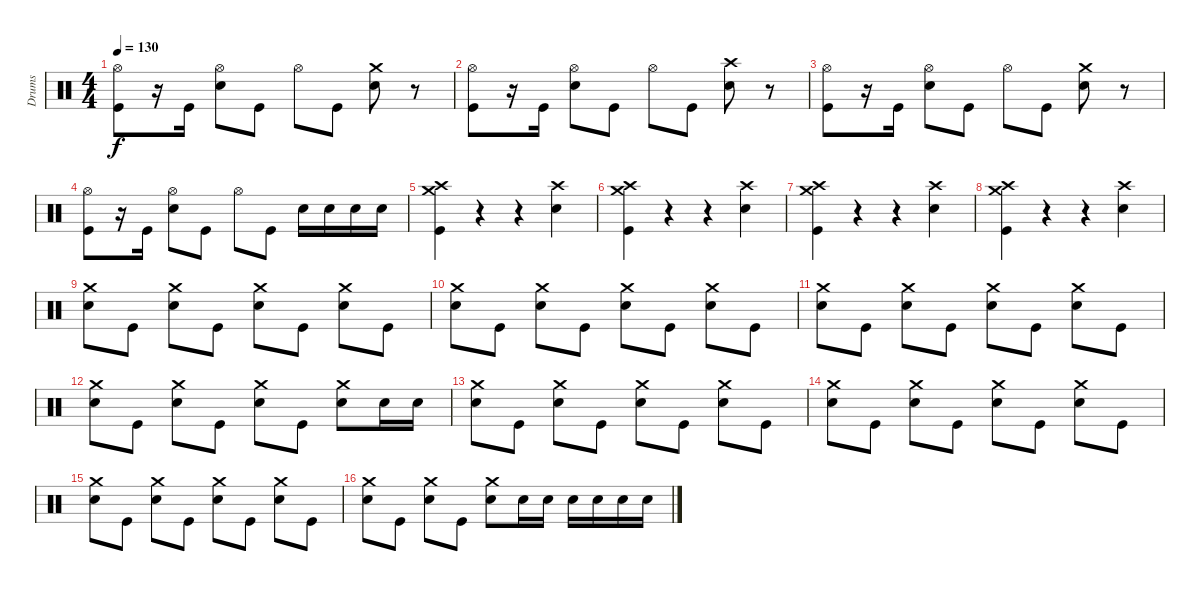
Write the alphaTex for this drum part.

\track ("Drums" "Drums") {instrument percussion}
\staff {score}
\articulation defaults
\ts (4 4)
\tempo 130
\clef neutral
\ks c
("Hi-Hat (open)" "Kick (hit)").8{dy f} r.16 "Kick (hit)".16 ("Hi-Hat (open)" "Snare (hit) 2").8 "Kick (hit)".8 "Hi-Hat (open)".8 "Kick (hit)".8 ("Crash medium (hit)" "Snare (hit) 2").8 r.8 |
("Hi-Hat (open)" "Kick (hit)").8 r.16 "Kick (hit)".16 ("Hi-Hat (open)" "Snare (hit) 2").8 "Kick (hit)".8 "Hi-Hat (open)".8 "Kick (hit)".8 ("Crash high (hit)" "Snare (hit) 2").8 r.8 |
("Hi-Hat (open)" "Kick (hit)").8 r.16 "Kick (hit)".16 ("Hi-Hat (open)" "Snare (hit) 2").8 "Kick (hit)".8 "Hi-Hat (open)".8 "Kick (hit)".8 ("Crash medium (hit)" "Snare (hit) 2").8 r.8 |
("Hi-Hat (open)" "Kick (hit)").8 r.16 "Kick (hit)".16 ("Hi-Hat (open)" "Snare (hit) 2").8 "Kick (hit)".8 "Hi-Hat (open)".8 "Kick (hit)".8 "Snare (hit) 2".16 "Snare (hit) 2".16 "Snare (hit) 2".16 "Snare (hit) 2".16 |
("Crash medium (hit)" "Crash high (hit)" "Kick (hit)").4 r.4 r.4 ("Crash high (hit)" "Snare (hit) 2").4 |
("Crash medium (hit)" "Crash high (hit)" "Kick (hit)").4 r.4 r.4 ("Crash high (hit)" "Snare (hit) 2").4 |
("Crash medium (hit)" "Crash high (hit)" "Kick (hit)").4 r.4 r.4 ("Crash high (hit)" "Snare (hit) 2").4 |
("Crash medium (hit)" "Crash high (hit)" "Kick (hit)").4 r.4 r.4 ("Crash high (hit)" "Snare (hit) 2").4 |
("Crash medium (hit)" "Snare (hit) 2").8 "Kick (hit)".8 ("Crash medium (hit)" "Snare (hit) 2").8 "Kick (hit)".8 ("Crash medium (hit)" "Snare (hit) 2").8 "Kick (hit)".8 ("Crash medium (hit)" "Snare (hit) 2").8 "Kick (hit)".8 |
("Crash medium (hit)" "Snare (hit) 2").8 "Kick (hit)".8 ("Crash medium (hit)" "Snare (hit) 2").8 "Kick (hit)".8 ("Crash medium (hit)" "Snare (hit) 2").8 "Kick (hit)".8 ("Crash medium (hit)" "Snare (hit) 2").8 "Kick (hit)".8 |
("Crash medium (hit)" "Snare (hit) 2").8 "Kick (hit)".8 ("Crash medium (hit)" "Snare (hit) 2").8 "Kick (hit)".8 ("Crash medium (hit)" "Snare (hit) 2").8 "Kick (hit)".8 ("Crash medium (hit)" "Snare (hit) 2").8 "Kick (hit)".8 |
("Crash medium (hit)" "Snare (hit) 2").8 "Kick (hit)".8 ("Crash medium (hit)" "Snare (hit) 2").8 "Kick (hit)".8 ("Crash medium (hit)" "Snare (hit) 2").8 "Kick (hit)".8 ("Crash medium (hit)" "Snare (hit) 2").8 "Snare (hit) 2".16 "Snare (hit) 2".16 |
("Crash medium (hit)" "Snare (hit) 2").8 "Kick (hit)".8 ("Crash medium (hit)" "Snare (hit) 2").8 "Kick (hit)".8 ("Crash medium (hit)" "Snare (hit) 2").8 "Kick (hit)".8 ("Crash medium (hit)" "Snare (hit) 2").8 "Kick (hit)".8 |
("Crash medium (hit)" "Snare (hit) 2").8 "Kick (hit)".8 ("Crash medium (hit)" "Snare (hit) 2").8 "Kick (hit)".8 ("Crash medium (hit)" "Snare (hit) 2").8 "Kick (hit)".8 ("Crash medium (hit)" "Snare (hit) 2").8 "Kick (hit)".8 |
("Crash medium (hit)" "Snare (hit) 2").8 "Kick (hit)".8 ("Crash medium (hit)" "Snare (hit) 2").8 "Kick (hit)".8 ("Crash medium (hit)" "Snare (hit) 2").8 "Kick (hit)".8 ("Crash medium (hit)" "Snare (hit) 2").8 "Kick (hit)".8 |
("Crash medium (hit)" "Snare (hit) 2").8 "Kick (hit)".8 ("Crash medium (hit)" "Snare (hit) 2").8 "Kick (hit)".8 ("Crash medium (hit)" "Snare (hit) 2").8 "Snare (hit) 2".16 "Snare (hit) 2".16 "Snare (hit) 2".16 "Snare (hit) 2".16 "Snare (hit) 2".16 "Snare (hit) 2".16
